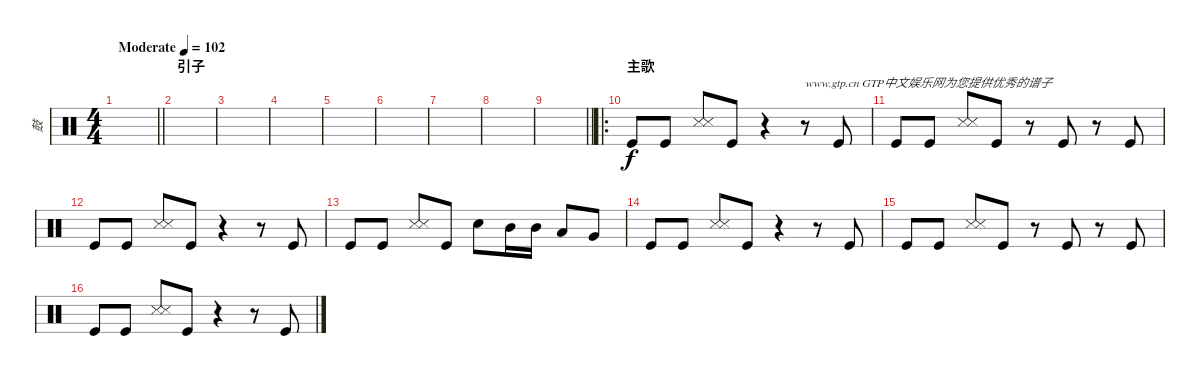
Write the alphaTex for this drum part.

\track ("鼓" "鼓") {instrument percussion}
\staff {score}
\articulation defaults
\ts (4 4)
\tempo (102 "Moderate")
\clef neutral
\barLineRight lightlight
\ks c
|
\section ("" "引子")
|
|
|
|
|
|
|
\barLineRight lightlight
|
\ro
\section ("" "主歌")
"Kick (hit)".8 "Kick (hit)".8 ("Snare (side stick) 3" "Snare (side stick) 3").8 "Kick (hit)".8 r.4 r.8{txt "www.gtp.cn GTP中文娱乐网为您提供优秀的谱子"} "Kick (hit)".8 |
"Kick (hit)".8 "Kick (hit)".8 ("Snare (side stick) 3" "Snare (side stick) 3").8 "Kick (hit)".8 r.8 "Kick (hit)".8 r.8 "Kick (hit)".8 |
"Kick (hit)".8 "Kick (hit)".8 ("Snare (side stick) 3" "Snare (side stick) 3").8 "Kick (hit)".8 r.4 r.8 "Kick (hit)".8 |
"Kick (hit)".8 "Kick (hit)".8 ("Snare (side stick) 3" "Snare (side stick) 3").8 "Kick (hit)".8 "Electric Snare (hit)".8 "Mid Tom (hit)".16 "Mid Tom (hit)".16 "Low Tom (hit)".8 "Very Low Tom (hit)".8 |
"Kick (hit)".8 "Kick (hit)".8 ("Snare (side stick) 3" "Snare (side stick) 3").8 "Kick (hit)".8 r.4 r.8 "Kick (hit)".8 |
"Kick (hit)".8 "Kick (hit)".8 ("Snare (side stick) 3" "Snare (side stick) 3").8 "Kick (hit)".8 r.8 "Kick (hit)".8 r.8 "Kick (hit)".8 |
"Kick (hit)".8 "Kick (hit)".8 ("Snare (side stick) 3" "Snare (side stick) 3").8 "Kick (hit)".8 r.4 r.8 "Kick (hit)".8
